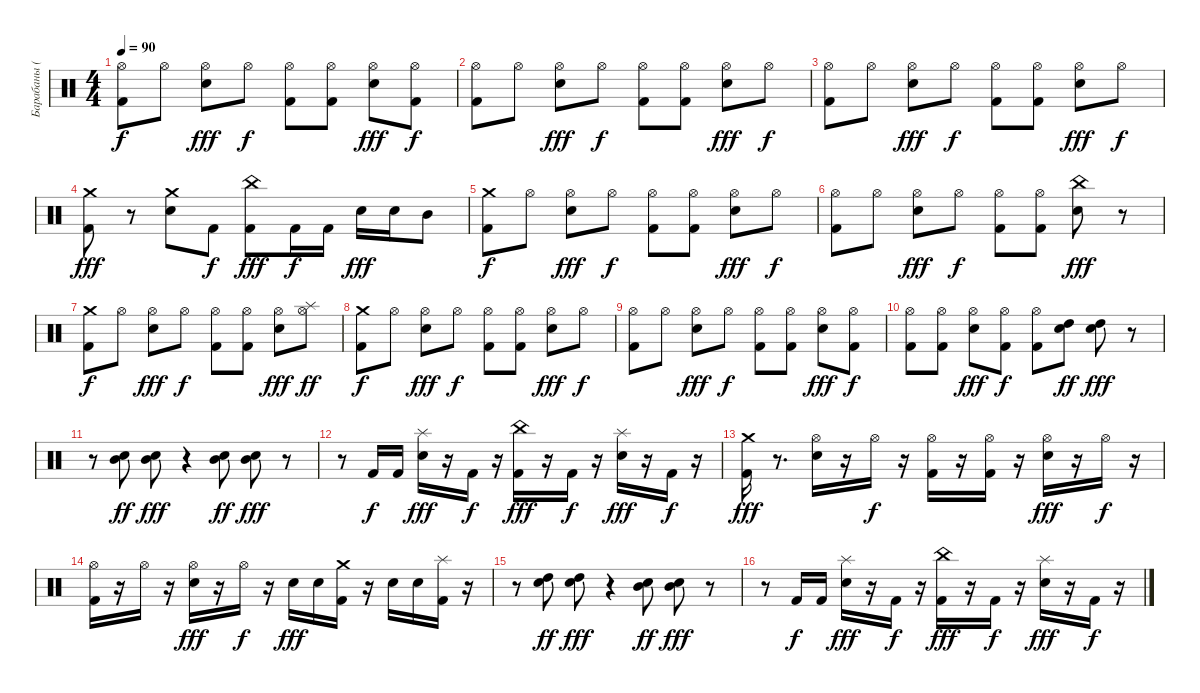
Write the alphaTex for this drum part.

\track ("Барабаны (Илья)" "Барабаны (") {instrument percussion}
\staff {score}
\articulation defaults
\ts (4 4)
\tempo 90
\clef neutral
\ks c
("Kick (hit) 2" "Hi-Hat (open)").8{dy f} "Hi-Hat (open)".8 ("Snare (hit) 2" "Hi-Hat (open)").8{dy fff} "Hi-Hat (open)".8{dy f} ("Kick (hit) 2" "Hi-Hat (open)").8 ("Hi-Hat (open)" "Kick (hit) 2").8 ("Snare (hit) 2" "Hi-Hat (open)").8{dy fff} ("Hi-Hat (open)" "Kick (hit) 2").8{dy f} |
("Kick (hit) 2" "Hi-Hat (open)").8 "Hi-Hat (open)".8 ("Snare (hit) 2" "Hi-Hat (open)").8{dy fff} "Hi-Hat (open)".8{dy f} ("Kick (hit) 2" "Hi-Hat (open)").8 ("Hi-Hat (open)" "Kick (hit) 2").8 ("Snare (hit) 2" "Hi-Hat (open)").8{dy fff} "Hi-Hat (open)".8{dy f} |
("Kick (hit) 2" "Hi-Hat (open)").8 "Hi-Hat (open)".8 ("Snare (hit) 2" "Hi-Hat (open)").8{dy fff} "Hi-Hat (open)".8{dy f} ("Hi-Hat (open)" "Kick (hit) 2").8 ("Hi-Hat (open)" "Kick (hit) 2").8 ("Snare (hit) 2" "Hi-Hat (open)").8{dy fff} "Hi-Hat (open)".8{dy f} |
("Crash medium (hit)" "Kick (hit) 2").8{dy fff} r.8 ("Crash medium (hit)" "Snare (hit) 2").8 "Kick (hit) 2".8{dy f} ("China (hit)" "Kick (hit) 2").8{dy fff} "Kick (hit) 2".16{dy f} "Kick (hit) 2".16 "Snare (hit) 2".16{dy fff} "Snare (hit) 2".16 "Mid Tom (hit)".8 |
("Kick (hit) 2" "Crash medium (hit)").8{dy f} "Hi-Hat (open)".8 ("Snare (hit) 2" "Hi-Hat (open)").8{dy fff} "Hi-Hat (open)".8{dy f} ("Kick (hit) 2" "Hi-Hat (open)").8 ("Kick (hit) 2" "Hi-Hat (open)").8 ("Hi-Hat (open)" "Snare (hit) 2").8{dy fff} "Hi-Hat (open)".8{dy f} |
("Kick (hit) 2" "Hi-Hat (open)").8 "Hi-Hat (open)".8 ("Hi-Hat (open)" "Snare (hit) 2").8{dy fff} "Hi-Hat (open)".8{dy f} ("Kick (hit) 2" "Hi-Hat (open)").8 ("Kick (hit) 2" "Hi-Hat (open)").8 ("China (hit)" "Snare (hit) 2").8{dy fff} r.8 |
("Kick (hit) 2" "Crash medium (hit)").8{dy f} "Hi-Hat (open)".8 ("Snare (hit) 2" "Hi-Hat (open)").8{dy fff} "Hi-Hat (open)".8{dy f} ("Kick (hit) 2" "Hi-Hat (open)").8 ("Kick (hit) 2" "Hi-Hat (open)").8 ("Hi-Hat (open)" "Snare (hit) 2").8{dy fff} ("Hi-Hat (open)" "Splash (hit)").8{dy ff} |
("Kick (hit) 2" "Crash medium (hit)").8{dy f} "Hi-Hat (open)".8 ("Snare (hit) 2" "Hi-Hat (open)").8{dy fff} "Hi-Hat (open)".8{dy f} ("Kick (hit) 2" "Hi-Hat (open)").8 ("Kick (hit) 2" "Hi-Hat (open)").8 ("Hi-Hat (open)" "Snare (hit) 2").8{dy fff} "Hi-Hat (open)".8{dy f} |
("Hi-Hat (open)" "Kick (hit) 2").8 "Hi-Hat (open)".8 ("Snare (hit) 2" "Hi-Hat (open)").8{dy fff} "Hi-Hat (open)".8{dy f} ("Hi-Hat (open)" "Kick (hit) 2").8 ("Kick (hit) 2" "Hi-Hat (open)").8 ("Snare (hit) 2" "Hi-Hat (open)").8{dy fff} ("Kick (hit) 2" "Hi-Hat (open)").8{dy f} |
("Hi-Hat (open)" "Kick (hit) 2").8 ("Hi-Hat (open)" "Kick (hit) 2").8 ("Hi-Hat (open)" "Snare (hit) 2").8{dy fff} ("Hi-Hat (open)" "Kick (hit) 2").8{dy f} ("Hi-Hat (open)" "Kick (hit) 2").8 ("High Tom (hit)" "Snare (hit) 2").8{dy ff} ("High Tom (hit)" "Snare (hit) 2").8{dy fff} r.8 |
r.8 ("Mid Tom (hit)" "Snare (hit) 2").8{dy ff} ("Mid Tom (hit)" "Snare (hit) 2").8{dy fff} r.4 ("Mid Tom (hit)" "Snare (hit) 2").8{dy ff} ("Snare (hit) 2" "Mid Tom (hit)").8{dy fff} r.8 |
r.8 "Kick (hit) 2".16{dy f} "Kick (hit) 2".16 ("Splash (hit)" "Snare (hit) 2").16{dy fff} r.16 "Kick (hit) 2".16{dy f} r.16 ("China (hit)" "Kick (hit) 2").16{dy fff} r.16 "Kick (hit) 2".16{dy f} r.16 ("Splash (hit)" "Snare (hit) 2").16{dy fff} r.16 "Kick (hit) 2".16{dy f} r.16 |
("Crash medium (hit)" "Kick (hit) 2").16{dy fff} r.8{d} ("Hi-Hat (open)" "Snare (hit) 2").16 r.16 "Hi-Hat (open)".16{dy f} r.16 ("Hi-Hat (open)" "Kick (hit) 2").16 r.16 ("Hi-Hat (open)" "Kick (hit) 2").16 r.16 ("Hi-Hat (open)" "Snare (hit) 2").16{dy fff} r.16 "Hi-Hat (open)".16{dy f} r.16 |
("Hi-Hat (open)" "Kick (hit) 2").16 r.16 "Hi-Hat (open)".16 r.16 ("Hi-Hat (open)" "Snare (hit) 2").16{dy fff} r.16 "Hi-Hat (open)".16{dy f} r.16 "Snare (hit) 2".16{dy fff} "Snare (hit) 2".16 ("Crash medium (hit)" "Kick (hit) 2").16 r.16 "Snare (hit) 2".16 "Snare (hit) 2".16 ("Splash (hit)" "Kick (hit) 2").16 r.16 |
r.8 ("High Tom (hit)" "Snare (hit) 2").8{dy ff} ("Snare (hit) 2" "High Tom (hit)").8{dy fff} r.4 ("Mid Tom (hit)" "Snare (hit) 2").8{dy ff} ("Snare (hit) 2" "Mid Tom (hit)").8{dy fff} r.8 |
r.8 "Kick (hit) 2".16{dy f} "Kick (hit) 2".16 ("Splash (hit)" "Snare (hit) 2").16{dy fff} r.16 "Kick (hit) 2".16{dy f} r.16 ("Kick (hit) 2" "China (hit)").16{dy fff} r.16 "Kick (hit) 2".16{dy f} r.16 ("Snare (hit) 2" "Splash (hit)").16{dy fff} r.16 "Kick (hit) 2".16{dy f} r.16
